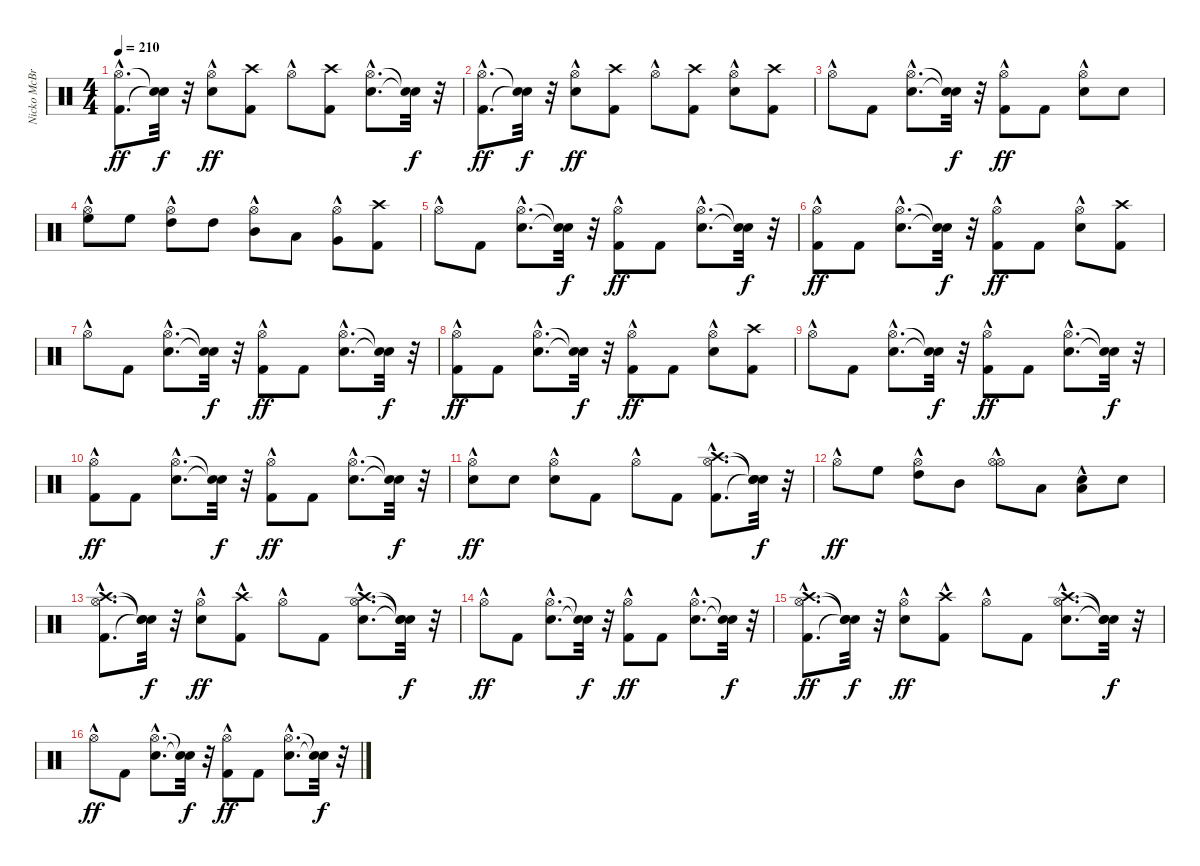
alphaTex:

\track ("Nicko McBrain" "Nicko McBr") {instrument percussion}
\staff {score}
\articulation defaults
\ts (4 4)
\tempo 210
\clef neutral
\ks c
("Kick (hit) 2"{hac} "Hi-Hat (open)"{hac}).8{d dy ff} ("Snare (hit)"{t} "Snare (hit)"{t}).32{dy f} r.32 ("Snare (hit) 2" "Hi-Hat (open)"{hac}).8{dy ff} ("Kick (hit) 2" "Crash high (hit)").8 "Hi-Hat (open)"{hac}.8 ("Kick (hit) 2" "Crash high (hit)").8 ("Snare (hit) 2"{hac} "Hi-Hat (open)"{hac}).8{d} ("Snare (hit)"{t} "Snare (hit)"{t}).32{dy f} r.32 |
("Kick (hit) 2"{hac} "Hi-Hat (open)"{hac}).8{d dy ff} ("Snare (hit)"{t} "Snare (hit)"{t}).32{dy f} r.32 ("Snare (hit) 2" "Hi-Hat (open)"{hac}).8{dy ff} ("Kick (hit) 2" "Crash high (hit)").8 "Hi-Hat (open)"{hac}.8 ("Kick (hit) 2" "Crash high (hit)").8 ("Snare (hit) 2" "Hi-Hat (open)"{hac}).8 ("Kick (hit) 2" "Crash high (hit)").8 |
"Hi-Hat (open)"{hac}.8 "Kick (hit) 2".8 ("Snare (hit) 2"{hac} "Hi-Hat (open)"{hac}).8{d} ("Snare (hit)"{t} "Snare (hit)"{t}).32{dy f} r.32 ("Kick (hit) 2" "Hi-Hat (open)"{hac}).8{dy ff} "Kick (hit) 2".8 ("Snare (hit) 2" "Hi-Hat (open)"{hac}).8 "Snare (hit) 2".8 |
("Hi-Hat (open)"{hac} "High Floor Tom (hit)").8 "High Floor Tom (hit)".8 ("Hi-Hat (open)"{hac} "High Tom (hit)").8 "High Tom (hit)".8 ("Hi-Hat (open)"{hac} "Mid Tom (hit)").8 "Low Tom (hit)".8 ("Very Low Tom (hit)" "Hi-Hat (open)"{hac}).8 ("Kick (hit) 2" "Crash high (hit)").8 |
"Hi-Hat (open)"{hac}.8 "Kick (hit) 2".8 ("Snare (hit) 2"{hac} "Hi-Hat (open)"{hac}).8{d} ("Snare (hit)"{t} "Snare (hit)"{t}).32{dy f} r.32 ("Kick (hit) 2" "Hi-Hat (open)"{hac}).8{dy ff} "Kick (hit) 2".8 ("Snare (hit) 2"{hac} "Hi-Hat (open)"{hac}).8{d} ("Snare (hit)"{t} "Snare (hit)"{t}).32{dy f} r.32 |
("Kick (hit) 2" "Hi-Hat (open)"{hac}).8{dy ff} "Kick (hit) 2".8 ("Snare (hit) 2"{hac} "Hi-Hat (open)"{hac}).8{d} ("Snare (hit)"{t} "Snare (hit)"{t}).32{dy f} r.32 ("Kick (hit) 2" "Hi-Hat (open)"{hac}).8{dy ff} "Kick (hit) 2".8 ("Snare (hit) 2" "Hi-Hat (open)"{hac}).8 ("Kick (hit) 2" "Crash high (hit)").8 |
"Hi-Hat (open)"{hac}.8 "Kick (hit) 2".8 ("Snare (hit) 2"{hac} "Hi-Hat (open)"{hac}).8{d} ("Snare (hit)"{t} "Snare (hit)"{t}).32{dy f} r.32 ("Kick (hit) 2" "Hi-Hat (open)"{hac}).8{dy ff} "Kick (hit) 2".8 ("Snare (hit) 2"{hac} "Hi-Hat (open)"{hac}).8{d} ("Snare (hit)"{t} "Snare (hit)"{t}).32{dy f} r.32 |
("Kick (hit) 2" "Hi-Hat (open)"{hac}).8{dy ff} "Kick (hit) 2".8 ("Snare (hit) 2"{hac} "Hi-Hat (open)"{hac}).8{d} ("Snare (hit)"{t} "Snare (hit)"{t}).32{dy f} r.32 ("Kick (hit) 2" "Hi-Hat (open)"{hac}).8{dy ff} "Kick (hit) 2".8 ("Snare (hit) 2" "Hi-Hat (open)"{hac}).8 ("Kick (hit) 2" "Crash high (hit)").8 |
"Hi-Hat (open)"{hac}.8 "Kick (hit) 2".8 ("Snare (hit) 2"{hac} "Hi-Hat (open)"{hac}).8{d} ("Snare (hit)"{t} "Snare (hit)"{t}).32{dy f} r.32 ("Kick (hit) 2" "Hi-Hat (open)"{hac}).8{dy ff} "Kick (hit) 2".8 ("Snare (hit) 2"{hac} "Hi-Hat (open)"{hac}).8{d} ("Snare (hit)"{t} "Snare (hit)"{t}).32{dy f} r.32 |
("Kick (hit) 2" "Hi-Hat (open)"{hac}).8{dy ff} "Kick (hit) 2".8 ("Snare (hit) 2"{hac} "Hi-Hat (open)"{hac}).8{d} ("Snare (hit)"{t} "Snare (hit)"{t}).32{dy f} r.32 ("Kick (hit) 2" "Hi-Hat (open)"{hac}).8{dy ff} "Kick (hit) 2".8 ("Snare (hit) 2"{hac} "Hi-Hat (open)"{hac}).8{d} ("Snare (hit)"{t} "Snare (hit)"{t}).32{dy f} r.32 |
("Snare (hit) 2" "Hi-Hat (open)"{hac}).8{dy ff} "Snare (hit) 2".8 ("Snare (hit) 2" "Hi-Hat (open)"{hac}).8 "Kick (hit) 2".8 "Hi-Hat (open)"{hac}.8 "Kick (hit) 2".8 ("Kick (hit) 2"{hac} "Hi-Hat (open)"{hac} "Crash high (hit)"{hac}).8{d} ("Snare (hit)"{t} "Snare (hit)"{t} "Snare (hit)"{t}).32{dy f} r.32 |
"Hi-Hat (open)"{hac}.8{dy ff} "High Floor Tom (hit)".8 ("Hi-Hat (open)"{hac} "High Tom (hit)").8 "Mid Tom (hit)".8 ("Hi-Hat (open)"{hac} "Hi-Hat (open)"{hac}).8 "Low Tom (hit)".8 ("Snare (hit) 2" "Low Tom (hit)"{hac}).8 "Snare (hit) 2".8 |
("Kick (hit) 2"{hac} "Hi-Hat (open)"{hac} "Crash high (hit)"{hac}).8{d} ("Snare (hit)"{t} "Snare (hit)"{t} "Snare (hit)"{t}).32{dy f} r.32 ("Snare (hit) 2" "Hi-Hat (open)"{hac}).8{dy ff} ("Kick (hit) 2" "Crash high (hit)"{hac}).8 "Hi-Hat (open)"{hac}.8 "Kick (hit) 2".8 ("Snare (hit) 2"{hac} "Hi-Hat (open)"{hac} "Crash high (hit)"{hac}).8{d} ("Snare (hit)"{t} "Snare (hit)"{t} "Snare (hit)"{t}).32{dy f} r.32 |
"Hi-Hat (open)"{hac}.8{dy ff} "Kick (hit) 2".8 ("Snare (hit) 2"{hac} "Hi-Hat (open)"{hac}).8{d} ("Snare (hit)"{t} "Snare (hit)"{t}).32{dy f} r.32 ("Kick (hit) 2" "Hi-Hat (open)"{hac}).8{dy ff} "Kick (hit) 2".8 ("Snare (hit) 2"{hac} "Hi-Hat (open)"{hac}).8{d} ("Snare (hit)"{t} "Snare (hit)"{t}).32{dy f} r.32 |
("Kick (hit) 2"{hac} "Hi-Hat (open)"{hac} "Crash high (hit)"{hac}).8{d dy ff} ("Snare (hit)"{t} "Snare (hit)"{t} "Snare (hit)"{t}).32{dy f} r.32 ("Snare (hit) 2" "Hi-Hat (open)"{hac}).8{dy ff} ("Kick (hit) 2" "Crash high (hit)"{hac}).8 "Hi-Hat (open)"{hac}.8 "Kick (hit) 2".8 ("Snare (hit) 2"{hac} "Hi-Hat (open)"{hac} "Crash high (hit)"{hac}).8{d} ("Snare (hit)"{t} "Snare (hit)"{t} "Snare (hit)"{t}).32{dy f} r.32 |
"Hi-Hat (open)"{hac}.8{dy ff} "Kick (hit) 2".8 ("Snare (hit) 2"{hac} "Hi-Hat (open)"{hac}).8{d} ("Snare (hit)"{t} "Snare (hit)"{t}).32{dy f} r.32 ("Kick (hit) 2" "Hi-Hat (open)"{hac}).8{dy ff} "Kick (hit) 2".8 ("Snare (hit) 2"{hac} "Hi-Hat (open)"{hac}).8{d} ("Snare (hit)"{t} "Snare (hit)"{t}).32{dy f} r.32
